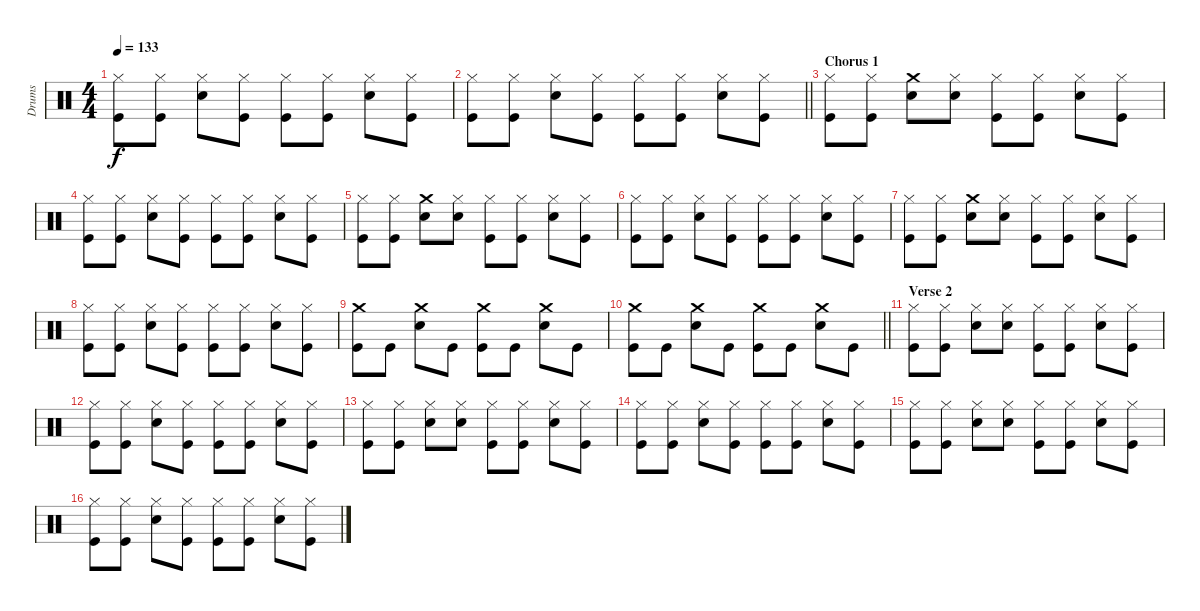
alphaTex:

\track ("Drums" "Drums") {instrument percussion}
\staff {score}
\articulation defaults
\ts (4 4)
\tempo 133
\clef neutral
\ks c
("Hi-Hat (closed)" "Kick (hit)").8{dy f} ("Hi-Hat (closed)" "Kick (hit)").8 ("Hi-Hat (closed)" "Snare (hit) 2").8 ("Hi-Hat (closed)" "Kick (hit)").8 ("Hi-Hat (closed)" "Kick (hit)").8 ("Hi-Hat (closed)" "Kick (hit)").8 ("Hi-Hat (closed)" "Snare (hit) 2").8 ("Hi-Hat (closed)" "Kick (hit)").8 |
\barLineRight lightlight
("Hi-Hat (closed)" "Kick (hit)").8 ("Hi-Hat (closed)" "Kick (hit)").8 ("Hi-Hat (closed)" "Snare (hit) 2").8 ("Hi-Hat (closed)" "Kick (hit)").8 ("Hi-Hat (closed)" "Kick (hit)").8 ("Hi-Hat (closed)" "Kick (hit)").8 ("Hi-Hat (closed)" "Snare (hit) 2").8 ("Hi-Hat (closed)" "Kick (hit)").8 |
\section ("" "Chorus 1")
("Hi-Hat (closed)" "Kick (hit)").8 ("Hi-Hat (closed)" "Kick (hit)").8 ("Crash medium (hit)" "Snare (hit) 2").8 ("Hi-Hat (closed)" "Snare (hit) 2").8 ("Hi-Hat (closed)" "Kick (hit)").8 ("Hi-Hat (closed)" "Kick (hit)").8 ("Hi-Hat (closed)" "Snare (hit) 2").8 ("Hi-Hat (closed)" "Kick (hit)").8 |
("Hi-Hat (closed)" "Kick (hit)").8 ("Hi-Hat (closed)" "Kick (hit)").8 ("Hi-Hat (closed)" "Snare (hit) 2").8 ("Hi-Hat (closed)" "Kick (hit)").8 ("Hi-Hat (closed)" "Kick (hit)").8 ("Hi-Hat (closed)" "Kick (hit)").8 ("Hi-Hat (closed)" "Snare (hit) 2").8 ("Hi-Hat (closed)" "Kick (hit)").8 |
("Hi-Hat (closed)" "Kick (hit)").8 ("Hi-Hat (closed)" "Kick (hit)").8 ("Crash medium (hit)" "Snare (hit) 2").8 ("Hi-Hat (closed)" "Snare (hit) 2").8 ("Hi-Hat (closed)" "Kick (hit)").8 ("Hi-Hat (closed)" "Kick (hit)").8 ("Hi-Hat (closed)" "Snare (hit) 2").8 ("Hi-Hat (closed)" "Kick (hit)").8 |
("Hi-Hat (closed)" "Kick (hit)").8 ("Hi-Hat (closed)" "Kick (hit)").8 ("Hi-Hat (closed)" "Snare (hit) 2").8 ("Hi-Hat (closed)" "Kick (hit)").8 ("Hi-Hat (closed)" "Kick (hit)").8 ("Hi-Hat (closed)" "Kick (hit)").8 ("Hi-Hat (closed)" "Snare (hit) 2").8 ("Hi-Hat (closed)" "Kick (hit)").8 |
("Hi-Hat (closed)" "Kick (hit)").8 ("Hi-Hat (closed)" "Kick (hit)").8 ("Crash medium (hit)" "Snare (hit) 2").8 ("Hi-Hat (closed)" "Snare (hit) 2").8 ("Hi-Hat (closed)" "Kick (hit)").8 ("Hi-Hat (closed)" "Kick (hit)").8 ("Hi-Hat (closed)" "Snare (hit) 2").8 ("Hi-Hat (closed)" "Kick (hit)").8 |
("Hi-Hat (closed)" "Kick (hit)").8 ("Hi-Hat (closed)" "Kick (hit)").8 ("Hi-Hat (closed)" "Snare (hit) 2").8 ("Hi-Hat (closed)" "Kick (hit)").8 ("Hi-Hat (closed)" "Kick (hit)").8 ("Hi-Hat (closed)" "Kick (hit)").8 ("Hi-Hat (closed)" "Snare (hit) 2").8 ("Hi-Hat (closed)" "Kick (hit)").8 |
("Crash medium (hit)" "Kick (hit)").8 "Kick (hit)".8 ("Crash medium (hit)" "Snare (hit) 2").8 "Kick (hit)".8 ("Crash medium (hit)" "Kick (hit)").8 "Kick (hit)".8 ("Crash medium (hit)" "Snare (hit) 2").8 "Kick (hit)".8 |
\barLineRight lightlight
("Crash medium (hit)" "Kick (hit)").8 "Kick (hit)".8 ("Crash medium (hit)" "Snare (hit) 2").8 "Kick (hit)".8 ("Crash medium (hit)" "Kick (hit)").8 "Kick (hit)".8 ("Crash medium (hit)" "Snare (hit) 2").8 "Kick (hit)".8 |
\section ("" "Verse 2")
("Hi-Hat (closed)" "Kick (hit)").8 ("Hi-Hat (closed)" "Kick (hit)").8 ("Hi-Hat (closed)" "Snare (hit) 2").8 ("Hi-Hat (closed)" "Snare (hit) 2").8 ("Hi-Hat (closed)" "Kick (hit)").8 ("Hi-Hat (closed)" "Kick (hit)").8 ("Hi-Hat (closed)" "Snare (hit) 2").8 ("Hi-Hat (closed)" "Kick (hit)").8 |
("Hi-Hat (closed)" "Kick (hit)").8 ("Hi-Hat (closed)" "Kick (hit)").8 ("Hi-Hat (closed)" "Snare (hit) 2").8 ("Hi-Hat (closed)" "Kick (hit)").8 ("Hi-Hat (closed)" "Kick (hit)").8 ("Hi-Hat (closed)" "Kick (hit)").8 ("Hi-Hat (closed)" "Snare (hit) 2").8 ("Hi-Hat (closed)" "Kick (hit)").8 |
("Hi-Hat (closed)" "Kick (hit)").8 ("Hi-Hat (closed)" "Kick (hit)").8 ("Hi-Hat (closed)" "Snare (hit) 2").8 ("Hi-Hat (closed)" "Snare (hit) 2").8 ("Hi-Hat (closed)" "Kick (hit)").8 ("Hi-Hat (closed)" "Kick (hit)").8 ("Hi-Hat (closed)" "Snare (hit) 2").8 ("Hi-Hat (closed)" "Kick (hit)").8 |
("Hi-Hat (closed)" "Kick (hit)").8 ("Hi-Hat (closed)" "Kick (hit)").8 ("Hi-Hat (closed)" "Snare (hit) 2").8 ("Hi-Hat (closed)" "Kick (hit)").8 ("Hi-Hat (closed)" "Kick (hit)").8 ("Hi-Hat (closed)" "Kick (hit)").8 ("Hi-Hat (closed)" "Snare (hit) 2").8 ("Hi-Hat (closed)" "Kick (hit)").8 |
("Hi-Hat (closed)" "Kick (hit)").8 ("Hi-Hat (closed)" "Kick (hit)").8 ("Hi-Hat (closed)" "Snare (hit) 2").8 ("Hi-Hat (closed)" "Snare (hit) 2").8 ("Hi-Hat (closed)" "Kick (hit)").8 ("Hi-Hat (closed)" "Kick (hit)").8 ("Hi-Hat (closed)" "Snare (hit) 2").8 ("Hi-Hat (closed)" "Kick (hit)").8 |
("Hi-Hat (closed)" "Kick (hit)").8 ("Hi-Hat (closed)" "Kick (hit)").8 ("Hi-Hat (closed)" "Snare (hit) 2").8 ("Hi-Hat (closed)" "Kick (hit)").8 ("Hi-Hat (closed)" "Kick (hit)").8 ("Hi-Hat (closed)" "Kick (hit)").8 ("Hi-Hat (closed)" "Snare (hit) 2").8 ("Hi-Hat (closed)" "Kick (hit)").8
